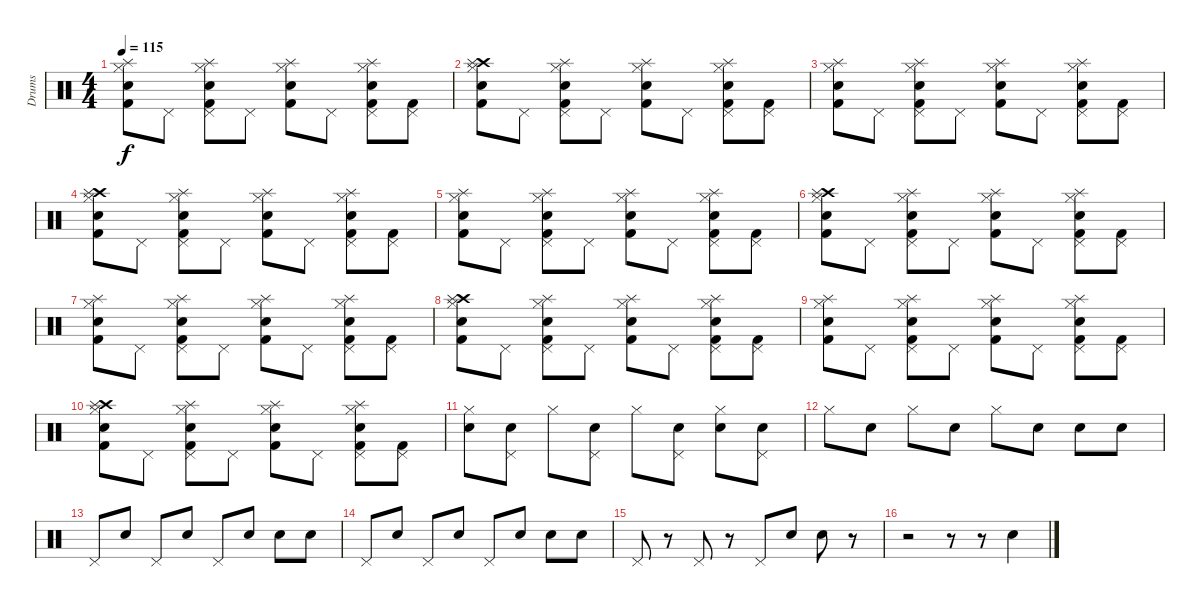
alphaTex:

\track ("Drums" "Drums") {instrument percussion}
\staff {score}
\articulation defaults
\ts (4 4)
\tempo 115
\clef neutral
\ks c
("Hi-Hat (closed)" "Snare (hit) 2" "Splash (hit)" "Kick (hit) 2").8{dy f} "Pedal Hi-Hat (hit)".8 ("Hi-Hat (closed)" "Pedal Hi-Hat (hit)" "Electric Snare (hit)" "Splash (hit)" "Kick (hit) 2").8 "Pedal Hi-Hat (hit)".8 ("Hi-Hat (closed)" "Snare (hit) 2" "Splash (hit)" "Kick (hit) 2").8 "Pedal Hi-Hat (hit)".8 ("Hi-Hat (closed)" "Pedal Hi-Hat (hit)" "Electric Snare (hit)" "Splash (hit)" "Kick (hit) 2").8 ("Pedal Hi-Hat (hit)" "Kick (hit) 2").8 |
("Hi-Hat (closed)" "Crash high (hit)" "Snare (hit) 2" "Splash (hit)" "Kick (hit) 2").8 "Pedal Hi-Hat (hit)".8 ("Hi-Hat (closed)" "Pedal Hi-Hat (hit)" "Electric Snare (hit)" "Splash (hit)" "Kick (hit) 2").8 "Pedal Hi-Hat (hit)".8 ("Hi-Hat (closed)" "Snare (hit) 2" "Splash (hit)" "Kick (hit) 2").8 "Pedal Hi-Hat (hit)".8 ("Hi-Hat (closed)" "Pedal Hi-Hat (hit)" "Electric Snare (hit)" "Splash (hit)" "Kick (hit) 2").8 ("Pedal Hi-Hat (hit)" "Kick (hit) 2").8 |
("Hi-Hat (closed)" "Snare (hit) 2" "Splash (hit)" "Kick (hit) 2").8 "Pedal Hi-Hat (hit)".8 ("Hi-Hat (closed)" "Pedal Hi-Hat (hit)" "Electric Snare (hit)" "Splash (hit)" "Kick (hit) 2").8 "Pedal Hi-Hat (hit)".8 ("Hi-Hat (closed)" "Snare (hit) 2" "Splash (hit)" "Kick (hit) 2").8 "Pedal Hi-Hat (hit)".8 ("Hi-Hat (closed)" "Pedal Hi-Hat (hit)" "Electric Snare (hit)" "Splash (hit)" "Kick (hit) 2").8 ("Pedal Hi-Hat (hit)" "Kick (hit) 2").8 |
("Hi-Hat (closed)" "Crash high (hit)" "Snare (hit) 2" "Splash (hit)" "Kick (hit) 2").8 "Pedal Hi-Hat (hit)".8 ("Hi-Hat (closed)" "Pedal Hi-Hat (hit)" "Electric Snare (hit)" "Splash (hit)" "Kick (hit) 2").8 "Pedal Hi-Hat (hit)".8 ("Hi-Hat (closed)" "Snare (hit) 2" "Splash (hit)" "Kick (hit) 2").8 "Pedal Hi-Hat (hit)".8 ("Hi-Hat (closed)" "Pedal Hi-Hat (hit)" "Electric Snare (hit)" "Splash (hit)" "Kick (hit) 2").8 ("Pedal Hi-Hat (hit)" "Kick (hit) 2").8 |
("Hi-Hat (closed)" "Snare (hit) 2" "Splash (hit)" "Kick (hit) 2").8 "Pedal Hi-Hat (hit)".8 ("Hi-Hat (closed)" "Pedal Hi-Hat (hit)" "Electric Snare (hit)" "Splash (hit)" "Kick (hit) 2").8 "Pedal Hi-Hat (hit)".8 ("Hi-Hat (closed)" "Snare (hit) 2" "Splash (hit)" "Kick (hit) 2").8 "Pedal Hi-Hat (hit)".8 ("Hi-Hat (closed)" "Pedal Hi-Hat (hit)" "Electric Snare (hit)" "Splash (hit)" "Kick (hit) 2").8 ("Pedal Hi-Hat (hit)" "Kick (hit) 2").8 |
("Hi-Hat (closed)" "Crash high (hit)" "Snare (hit) 2" "Splash (hit)" "Kick (hit) 2").8 "Pedal Hi-Hat (hit)".8 ("Hi-Hat (closed)" "Pedal Hi-Hat (hit)" "Electric Snare (hit)" "Splash (hit)" "Kick (hit) 2").8 "Pedal Hi-Hat (hit)".8 ("Hi-Hat (closed)" "Snare (hit) 2" "Splash (hit)" "Kick (hit) 2").8 "Pedal Hi-Hat (hit)".8 ("Hi-Hat (closed)" "Pedal Hi-Hat (hit)" "Electric Snare (hit)" "Splash (hit)" "Kick (hit) 2").8 ("Pedal Hi-Hat (hit)" "Kick (hit) 2").8 |
("Hi-Hat (closed)" "Snare (hit) 2" "Splash (hit)" "Kick (hit) 2").8 "Pedal Hi-Hat (hit)".8 ("Hi-Hat (closed)" "Pedal Hi-Hat (hit)" "Electric Snare (hit)" "Splash (hit)" "Kick (hit) 2").8 "Pedal Hi-Hat (hit)".8 ("Hi-Hat (closed)" "Snare (hit) 2" "Splash (hit)" "Kick (hit) 2").8 "Pedal Hi-Hat (hit)".8 ("Hi-Hat (closed)" "Pedal Hi-Hat (hit)" "Electric Snare (hit)" "Splash (hit)" "Kick (hit) 2").8 ("Pedal Hi-Hat (hit)" "Kick (hit) 2").8 |
("Hi-Hat (closed)" "Crash high (hit)" "Snare (hit) 2" "Splash (hit)" "Kick (hit) 2").8 "Pedal Hi-Hat (hit)".8 ("Hi-Hat (closed)" "Pedal Hi-Hat (hit)" "Electric Snare (hit)" "Splash (hit)" "Kick (hit) 2").8 "Pedal Hi-Hat (hit)".8 ("Hi-Hat (closed)" "Snare (hit) 2" "Splash (hit)" "Kick (hit) 2").8 "Pedal Hi-Hat (hit)".8 ("Hi-Hat (closed)" "Pedal Hi-Hat (hit)" "Electric Snare (hit)" "Splash (hit)" "Kick (hit) 2").8 ("Pedal Hi-Hat (hit)" "Kick (hit) 2").8 |
("Hi-Hat (closed)" "Snare (hit) 2" "Splash (hit)" "Kick (hit) 2").8 "Pedal Hi-Hat (hit)".8 ("Hi-Hat (closed)" "Pedal Hi-Hat (hit)" "Electric Snare (hit)" "Splash (hit)" "Kick (hit) 2").8 "Pedal Hi-Hat (hit)".8 ("Hi-Hat (closed)" "Snare (hit) 2" "Splash (hit)" "Kick (hit) 2").8 "Pedal Hi-Hat (hit)".8 ("Hi-Hat (closed)" "Pedal Hi-Hat (hit)" "Electric Snare (hit)" "Splash (hit)" "Kick (hit) 2").8 ("Pedal Hi-Hat (hit)" "Kick (hit) 2").8 |
("Hi-Hat (closed)" "Crash high (hit)" "Snare (hit) 2" "Splash (hit)" "Kick (hit) 2").8 "Pedal Hi-Hat (hit)".8 ("Hi-Hat (closed)" "Pedal Hi-Hat (hit)" "Electric Snare (hit)" "Splash (hit)" "Kick (hit) 2").8 "Pedal Hi-Hat (hit)".8 ("Hi-Hat (closed)" "Snare (hit) 2" "Splash (hit)" "Kick (hit) 2").8 "Pedal Hi-Hat (hit)".8 ("Hi-Hat (closed)" "Pedal Hi-Hat (hit)" "Electric Snare (hit)" "Splash (hit)" "Kick (hit) 2").8 ("Pedal Hi-Hat (hit)" "Kick (hit) 2").8 |
("Hi-Hat (closed)" "Hand Clap (hit)").8 ("Pedal Hi-Hat (hit)" "Hand Clap (hit)").8 "Hi-Hat (closed)".8 ("Pedal Hi-Hat (hit)" "Hand Clap (hit)").8 "Hi-Hat (closed)".8 ("Pedal Hi-Hat (hit)" "Hand Clap (hit)").8 ("Hi-Hat (closed)" "Hand Clap (hit)").8 ("Pedal Hi-Hat (hit)" "Hand Clap (hit)").8 |
"Hi-Hat (closed)".8 "Hand Clap (hit)".8 "Hi-Hat (closed)".8 "Hand Clap (hit)".8 "Hi-Hat (closed)".8 "Hand Clap (hit)".8 "Hand Clap (hit)".8 "Hand Clap (hit)".8 |
"Pedal Hi-Hat (hit)".8 "Hand Clap (hit)".8 "Pedal Hi-Hat (hit)".8 "Hand Clap (hit)".8 "Pedal Hi-Hat (hit)".8 "Hand Clap (hit)".8 "Hand Clap (hit)".8 "Hand Clap (hit)".8 |
"Pedal Hi-Hat (hit)".8 "Hand Clap (hit)".8 "Pedal Hi-Hat (hit)".8 "Hand Clap (hit)".8 "Pedal Hi-Hat (hit)".8 "Hand Clap (hit)".8 "Hand Clap (hit)".8 "Hand Clap (hit)".8 |
"Pedal Hi-Hat (hit)".8 r.8 "Pedal Hi-Hat (hit)".8 r.8 "Pedal Hi-Hat (hit)".8 "Hand Clap (hit)".8 "Hand Clap (hit)".8 r.8 |
r.2 r.8 r.8 "Hand Clap (hit)".4
